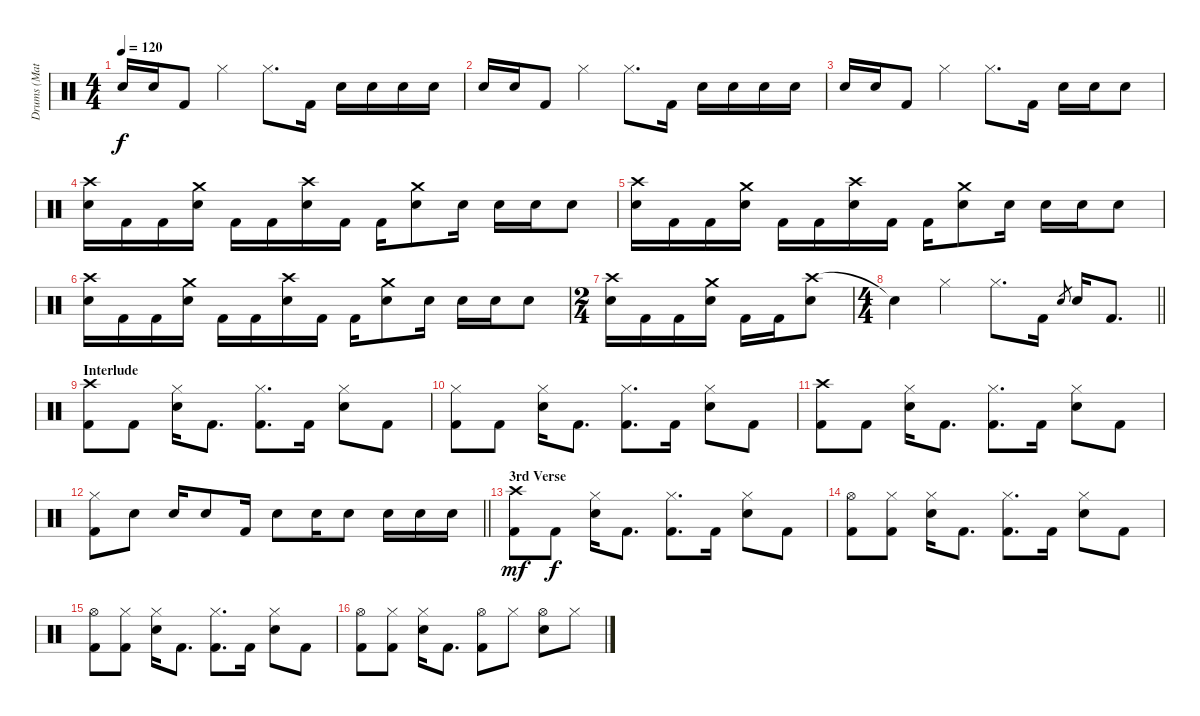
\track ("Drums (Matt)" "Drums (Mat") {instrument percussion}
\staff {score}
\articulation defaults
\ts (4 4)
\tempo 120
\clef neutral
\ks c "Snare (hit) 2".16{dy f} "Snare (hit) 2".16 "Kick (hit) 2".8 "Hi-Hat (closed)".4 "Hi-Hat (closed)".8{d} "Kick (hit) 2".16 "Snare (hit) 2".16 "Snare (hit) 2".16 "Snare (hit) 2".16 "Snare (hit) 2".16
|
"Snare (hit) 2".16 "Snare (hit) 2".16 "Kick (hit) 2".8 "Hi-Hat (closed)".4 "Hi-Hat (closed)".8{d} "Kick (hit) 2".16 "Snare (hit) 2".16 "Snare (hit) 2".16 "Snare (hit) 2".16 "Snare (hit) 2".16 |
"Snare (hit) 2".16 "Snare (hit) 2".16 "Kick (hit) 2".8 "Hi-Hat (closed)".4 "Hi-Hat (closed)".8{d} "Kick (hit) 2".16 "Snare (hit) 2".16 "Snare (hit) 2".16 "Snare (hit) 2".8 |
("Crash high (hit)" "Snare (hit) 2").16 "Kick (hit) 2".16 "Kick (hit) 2".16 ("Crash medium (hit)" "Snare (hit) 2").16 "Kick (hit) 2".16 "Kick (hit) 2".16 ("Crash high (hit)" "Snare (hit) 2").16 "Kick (hit) 2".16 "Kick (hit) 2".16 ("Crash medium (hit)" "Snare (hit) 2").8 "Snare (hit) 2".16 "Snare (hit) 2".16 "Snare (hit) 2".16 "Snare (hit) 2".8 |
("Crash high (hit)" "Snare (hit) 2").16 "Kick (hit) 2".16 "Kick (hit) 2".16 ("Crash medium (hit)" "Snare (hit) 2").16 "Kick (hit) 2".16 "Kick (hit) 2".16 ("Crash high (hit)" "Snare (hit) 2").16 "Kick (hit) 2".16 "Kick (hit) 2".16 ("Crash medium (hit)" "Snare (hit) 2").8 "Snare (hit) 2".16 "Snare (hit) 2".16 "Snare (hit) 2".16 "Snare (hit) 2".8 |
("Crash high (hit)" "Snare (hit) 2").16 "Kick (hit) 2".16 "Kick (hit) 2".16 ("Crash medium (hit)" "Snare (hit) 2").16 "Kick (hit) 2".16 "Kick (hit) 2".16 ("Crash high (hit)" "Snare (hit) 2").16 "Kick (hit) 2".16 "Kick (hit) 2".16 ("Crash medium (hit)" "Snare (hit) 2").8 "Snare (hit) 2".16 "Snare (hit) 2".16 "Snare (hit) 2".16 "Snare (hit) 2".8 |
\ts (2 4)
("Crash high (hit)" "Snare (hit) 2").16 "Kick (hit) 2".16 "Kick (hit) 2".16 ("Crash medium (hit)" "Snare (hit) 2").16 "Kick (hit) 2".16 "Kick (hit) 2".16 ("Crash high (hit)" "Snare (hit) 2").8 |
\ts (4 4)
\barLineRight lightlight "Snare (hit)"{t}.4 "Hi-Hat (closed)".4 "Hi-Hat (closed)".8{d} "Kick (hit) 2".16 "Snare (hit) 2".8{gr} "Snare (hit) 2".16 "Kick (hit) 2".8{d}
|
\section ("" "Interlude")
("Crash high (hit)" "Kick (hit) 2").8 "Kick (hit) 2".8 ("Hi-Hat (closed)" "Snare (hit) 2").16 "Kick (hit) 2".8{d} ("Hi-Hat (closed)" "Kick (hit) 2").8{d} "Kick (hit) 2".16 ("Hi-Hat (closed)" "Snare (hit) 2").8 "Kick (hit) 2".8 |
("Hi-Hat (closed)" "Kick (hit) 2").8 "Kick (hit) 2".8 ("Hi-Hat (closed)" "Snare (hit) 2").16 "Kick (hit) 2".8{d} ("Hi-Hat (closed)" "Kick (hit) 2").8{d} "Kick (hit) 2".16 ("Hi-Hat (closed)" "Snare (hit) 2").8 "Kick (hit) 2".8 |
("Crash high (hit)" "Kick (hit) 2").8 "Kick (hit) 2".8 ("Hi-Hat (closed)" "Snare (hit) 2").16 "Kick (hit) 2".8{d} ("Hi-Hat (closed)" "Kick (hit) 2").8{d} "Kick (hit) 2".16 ("Hi-Hat (closed)" "Snare (hit) 2").8 "Kick (hit) 2".8 |
\barLineRight lightlight
("Hi-Hat (closed)" "Kick (hit) 2").8 "Snare (hit) 2".8 "Snare (hit) 2".16 "Snare (hit) 2".8 "Kick (hit) 2".16 "Snare (hit) 2".8 "Snare (hit) 2".16 "Snare (hit) 2".8 "Snare (hit) 2".16 "Snare (hit) 2".16 "Snare (hit) 2".16 |
\section ("" "3rd Verse")
("Crash high (hit)" "Kick (hit) 2").8{dy mf} "Kick (hit) 2".8{dy f} ("Hi-Hat (closed)" "Snare (hit) 2").16 "Kick (hit) 2".8{d} ("Hi-Hat (closed)" "Kick (hit) 2").8{d} "Kick (hit) 2".16 ("Hi-Hat (closed)" "Snare (hit) 2").8 "Kick (hit) 2".8 |
("Hi-Hat (open)" "Kick (hit) 2").8 ("Hi-Hat (closed)" "Kick (hit) 2").8 ("Hi-Hat (closed)" "Snare (hit) 2").16 "Kick (hit) 2".8{d} ("Hi-Hat (closed)" "Kick (hit) 2").8{d} "Kick (hit) 2".16 ("Hi-Hat (closed)" "Snare (hit) 2").8 "Kick (hit) 2".8 |
("Hi-Hat (open)" "Kick (hit) 2").8 ("Hi-Hat (closed)" "Kick (hit) 2").8 ("Hi-Hat (closed)" "Snare (hit) 2").16 "Kick (hit) 2".8{d} ("Hi-Hat (closed)" "Kick (hit) 2").8{d} "Kick (hit) 2".16 ("Hi-Hat (closed)" "Snare (hit) 2").8 "Kick (hit) 2".8 |
("Hi-Hat (open)" "Kick (hit) 2").8 ("Hi-Hat (closed)" "Kick (hit) 2").8 ("Hi-Hat (closed)" "Snare (hit) 2").16 "Kick (hit) 2".8{d} ("Hi-Hat (open)" "Kick (hit) 2").8 "Hi-Hat (closed)".8 ("Hi-Hat (open)" "Snare (hit) 2").8 "Hi-Hat (closed)".8
